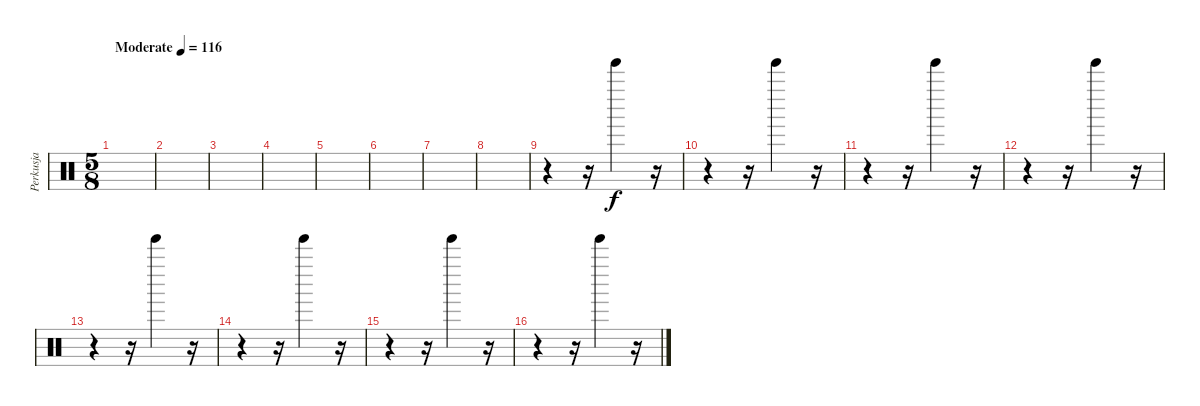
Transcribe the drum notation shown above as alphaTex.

\track ("Perkusja" "Perkusja") {instrument percussion}
\staff {score}
\articulation defaults
\ts (5 8)
\tempo (116 "Moderate")
\clef neutral
\ks c
|
|
|
|
|
|
|
|
r.4 r.16 "Tinkle Bell (hit)".4 r.16 |
r.4 r.16 "Tinkle Bell (hit)".4 r.16 |
r.4 r.16 "Tinkle Bell (hit)".4 r.16 |
r.4 r.16 "Tinkle Bell (hit)".4 r.16 |
r.4 r.16 "Tinkle Bell (hit)".4 r.16 |
r.4 r.16 "Tinkle Bell (hit)".4 r.16 |
r.4 r.16 "Tinkle Bell (hit)".4 r.16 |
r.4 r.16 "Tinkle Bell (hit)".4 r.16
